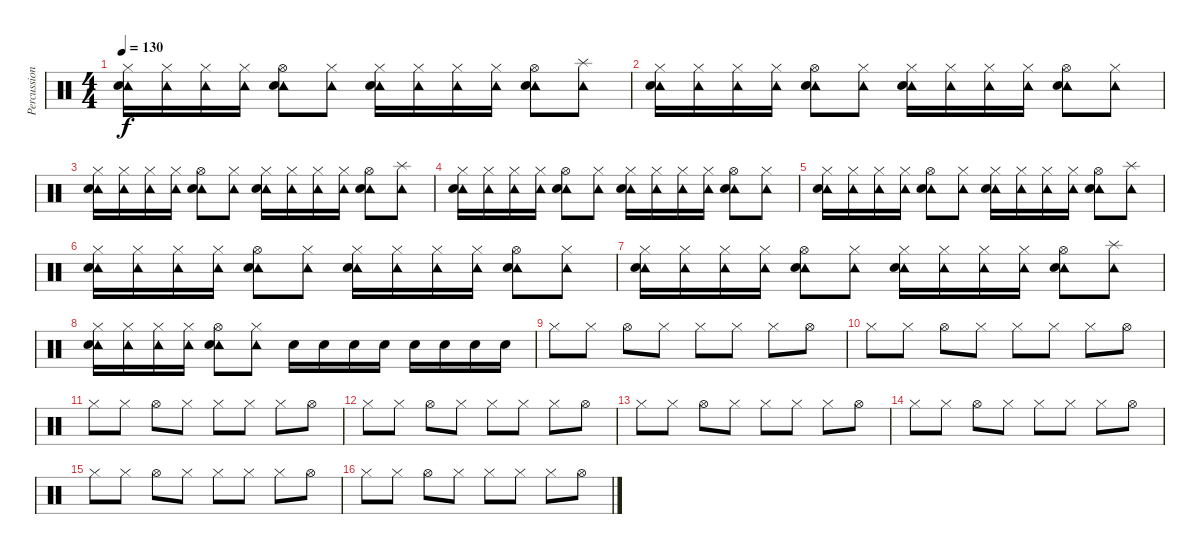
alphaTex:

\track ("Percussion" "Percussion") {instrument percussion}
\staff {score}
\articulation defaults
\ts (4 4)
\tempo 130
\clef neutral
\ks c
("Hi-Hat (closed)" "Tambourine (hit)" "Electric Snare (hit)").16{dy f volume 16} ("Hi-Hat (closed)" "Tambourine (hit)").16 ("Hi-Hat (closed)" "Tambourine (hit)").16 ("Hi-Hat (closed)" "Tambourine (hit)").16 ("Hi-Hat (open)" "Tambourine (hit)" "Electric Snare (hit)").8 ("Hi-Hat (closed)" "Tambourine (hit)").8 ("Hi-Hat (closed)" "Tambourine (hit)" "Electric Snare (hit)").16 ("Hi-Hat (closed)" "Tambourine (hit)").16 ("Hi-Hat (closed)" "Tambourine (hit)").16 ("Hi-Hat (closed)" "Tambourine (hit)").16 ("Hi-Hat (open)" "Tambourine (hit)" "Electric Snare (hit)").8 ("Splash (hit)" "Tambourine (hit)").8 |
("Hi-Hat (closed)" "Tambourine (hit)" "Electric Snare (hit)").16 ("Hi-Hat (closed)" "Tambourine (hit)").16 ("Hi-Hat (closed)" "Tambourine (hit)").16 ("Hi-Hat (closed)" "Tambourine (hit)").16 ("Hi-Hat (open)" "Tambourine (hit)" "Electric Snare (hit)").8 ("Hi-Hat (closed)" "Tambourine (hit)").8 ("Hi-Hat (closed)" "Tambourine (hit)" "Electric Snare (hit)").16 ("Hi-Hat (closed)" "Tambourine (hit)").16 ("Hi-Hat (closed)" "Tambourine (hit)").16 ("Hi-Hat (closed)" "Tambourine (hit)").16 ("Hi-Hat (open)" "Tambourine (hit)" "Electric Snare (hit)").8 ("Hi-Hat (closed)" "Tambourine (hit)").8 |
("Hi-Hat (closed)" "Tambourine (hit)" "Electric Snare (hit)").16{volume 16} ("Hi-Hat (closed)" "Tambourine (hit)").16 ("Hi-Hat (closed)" "Tambourine (hit)").16 ("Hi-Hat (closed)" "Tambourine (hit)").16 ("Hi-Hat (open)" "Tambourine (hit)" "Electric Snare (hit)").8 ("Hi-Hat (closed)" "Tambourine (hit)").8 ("Hi-Hat (closed)" "Tambourine (hit)" "Electric Snare (hit)").16 ("Hi-Hat (closed)" "Tambourine (hit)").16 ("Hi-Hat (closed)" "Tambourine (hit)").16 ("Hi-Hat (closed)" "Tambourine (hit)").16 ("Hi-Hat (open)" "Tambourine (hit)" "Electric Snare (hit)").8 ("Splash (hit)" "Tambourine (hit)").8 |
("Hi-Hat (closed)" "Tambourine (hit)" "Electric Snare (hit)").16 ("Hi-Hat (closed)" "Tambourine (hit)").16 ("Hi-Hat (closed)" "Tambourine (hit)").16 ("Hi-Hat (closed)" "Tambourine (hit)").16 ("Hi-Hat (open)" "Tambourine (hit)" "Electric Snare (hit)").8 ("Hi-Hat (closed)" "Tambourine (hit)").8 ("Hi-Hat (closed)" "Tambourine (hit)" "Electric Snare (hit)").16 ("Hi-Hat (closed)" "Tambourine (hit)").16 ("Hi-Hat (closed)" "Tambourine (hit)").16 ("Hi-Hat (closed)" "Tambourine (hit)").16 ("Hi-Hat (open)" "Tambourine (hit)" "Electric Snare (hit)").8 ("Hi-Hat (closed)" "Tambourine (hit)").8 |
("Hi-Hat (closed)" "Tambourine (hit)" "Electric Snare (hit)").16{volume 16} ("Hi-Hat (closed)" "Tambourine (hit)").16 ("Hi-Hat (closed)" "Tambourine (hit)").16 ("Hi-Hat (closed)" "Tambourine (hit)").16 ("Hi-Hat (open)" "Tambourine (hit)" "Electric Snare (hit)").8 ("Hi-Hat (closed)" "Tambourine (hit)").8 ("Hi-Hat (closed)" "Tambourine (hit)" "Electric Snare (hit)").16 ("Hi-Hat (closed)" "Tambourine (hit)").16 ("Hi-Hat (closed)" "Tambourine (hit)").16 ("Hi-Hat (closed)" "Tambourine (hit)").16 ("Hi-Hat (open)" "Tambourine (hit)" "Electric Snare (hit)").8 ("Splash (hit)" "Tambourine (hit)").8 |
("Hi-Hat (closed)" "Tambourine (hit)" "Electric Snare (hit)").16 ("Hi-Hat (closed)" "Tambourine (hit)").16 ("Hi-Hat (closed)" "Tambourine (hit)").16 ("Hi-Hat (closed)" "Tambourine (hit)").16 ("Hi-Hat (open)" "Tambourine (hit)" "Electric Snare (hit)").8 ("Hi-Hat (closed)" "Tambourine (hit)").8 ("Hi-Hat (closed)" "Tambourine (hit)" "Electric Snare (hit)").16 ("Hi-Hat (closed)" "Tambourine (hit)").16 ("Hi-Hat (closed)" "Tambourine (hit)").16 ("Hi-Hat (closed)" "Tambourine (hit)").16 ("Hi-Hat (open)" "Tambourine (hit)" "Electric Snare (hit)").8 ("Hi-Hat (closed)" "Tambourine (hit)").8 |
("Hi-Hat (closed)" "Tambourine (hit)" "Electric Snare (hit)").16 ("Hi-Hat (closed)" "Tambourine (hit)").16 ("Hi-Hat (closed)" "Tambourine (hit)").16 ("Hi-Hat (closed)" "Tambourine (hit)").16 ("Hi-Hat (open)" "Tambourine (hit)" "Electric Snare (hit)").8 ("Hi-Hat (closed)" "Tambourine (hit)").8 ("Hi-Hat (closed)" "Tambourine (hit)" "Electric Snare (hit)").16 ("Hi-Hat (closed)" "Tambourine (hit)").16 ("Hi-Hat (closed)" "Tambourine (hit)").16 ("Hi-Hat (closed)" "Tambourine (hit)").16 ("Hi-Hat (open)" "Tambourine (hit)" "Electric Snare (hit)").8 ("Splash (hit)" "Tambourine (hit)").8 |
("Hi-Hat (closed)" "Tambourine (hit)" "Electric Snare (hit)").16 ("Hi-Hat (closed)" "Tambourine (hit)").16 ("Hi-Hat (closed)" "Tambourine (hit)").16 ("Hi-Hat (closed)" "Tambourine (hit)").16 ("Hi-Hat (open)" "Tambourine (hit)" "Electric Snare (hit)").8 ("Hi-Hat (closed)" "Tambourine (hit)").8 "Snare (hit) 2".16 "Snare (hit) 2".16 "Snare (hit) 2".16 "Snare (hit) 2".16 "Snare (hit) 2".16 "Snare (hit) 2".16 "Snare (hit) 2".16 "Snare (hit) 2".16 |
"Hi-Hat (closed)".8 "Hi-Hat (closed)".8 "Hi-Hat (open)".8 "Hi-Hat (closed)".8 "Hi-Hat (closed)".8 "Hi-Hat (closed)".8 "Hi-Hat (closed)".8 "Hi-Hat (open)".8 |
"Hi-Hat (closed)".8 "Hi-Hat (closed)".8 "Hi-Hat (open)".8 "Hi-Hat (closed)".8 "Hi-Hat (closed)".8 "Hi-Hat (closed)".8 "Hi-Hat (closed)".8 "Hi-Hat (open)".8 |
"Hi-Hat (closed)".8 "Hi-Hat (closed)".8 "Hi-Hat (open)".8 "Hi-Hat (closed)".8 "Hi-Hat (closed)".8 "Hi-Hat (closed)".8 "Hi-Hat (closed)".8 "Hi-Hat (open)".8 |
"Hi-Hat (closed)".8 "Hi-Hat (closed)".8 "Hi-Hat (open)".8 "Hi-Hat (closed)".8 "Hi-Hat (closed)".8 "Hi-Hat (closed)".8 "Hi-Hat (closed)".8 "Hi-Hat (open)".8 |
"Hi-Hat (closed)".8 "Hi-Hat (closed)".8 "Hi-Hat (open)".8 "Hi-Hat (closed)".8 "Hi-Hat (closed)".8 "Hi-Hat (closed)".8 "Hi-Hat (closed)".8 "Hi-Hat (open)".8 |
"Hi-Hat (closed)".8 "Hi-Hat (closed)".8 "Hi-Hat (open)".8 "Hi-Hat (closed)".8 "Hi-Hat (closed)".8 "Hi-Hat (closed)".8 "Hi-Hat (closed)".8 "Hi-Hat (open)".8 |
"Hi-Hat (closed)".8 "Hi-Hat (closed)".8 "Hi-Hat (open)".8 "Hi-Hat (closed)".8 "Hi-Hat (closed)".8 "Hi-Hat (closed)".8 "Hi-Hat (closed)".8 "Hi-Hat (open)".8 |
"Hi-Hat (closed)".8 "Hi-Hat (closed)".8 "Hi-Hat (open)".8 "Hi-Hat (closed)".8 "Hi-Hat (closed)".8 "Hi-Hat (closed)".8 "Hi-Hat (closed)".8 "Hi-Hat (open)".8
